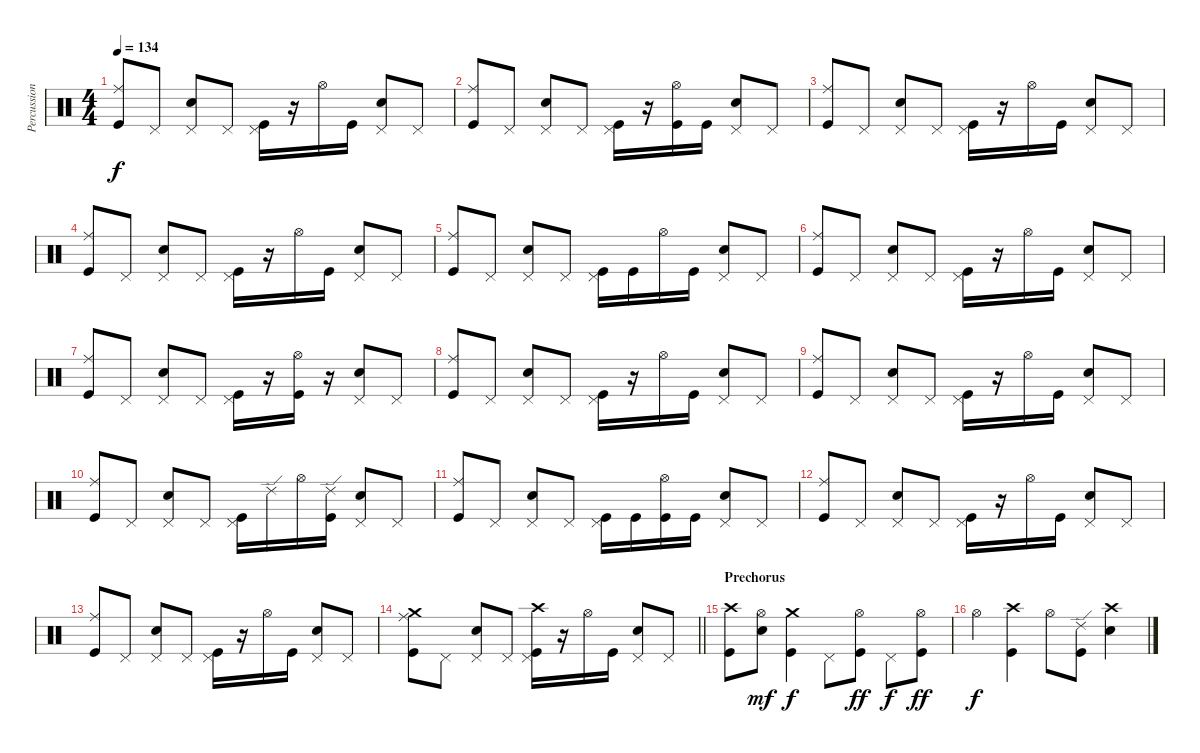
\track ("Percussion" "Percussion") {instrument percussion}
\staff {score}
\articulation defaults
\ts (4 4)
\tempo 134
\clef neutral
\ks c
("Ride (middle)" "Kick (hit)").8{dy f} "Pedal Hi-Hat (hit)".8 ("Pedal Hi-Hat (hit)" "Electric Snare (hit)").8 "Pedal Hi-Hat (hit)".8 ("Pedal Hi-Hat (hit)" "Kick (hit)").16 r.16 "Hi-Hat (open)".16 "Kick (hit)".16 ("Pedal Hi-Hat (hit)" "Electric Snare (hit)").8 "Pedal Hi-Hat (hit)".8 |
("Ride (middle)" "Kick (hit)").8 "Pedal Hi-Hat (hit)".8 ("Pedal Hi-Hat (hit)" "Electric Snare (hit)").8 "Pedal Hi-Hat (hit)".8 ("Pedal Hi-Hat (hit)" "Kick (hit)").16 r.16 ("Hi-Hat (open)" "Kick (hit)").16 "Kick (hit)".16 ("Pedal Hi-Hat (hit)" "Electric Snare (hit)").8 "Pedal Hi-Hat (hit)".8 |
("Ride (middle)" "Kick (hit)").8 "Pedal Hi-Hat (hit)".8 ("Pedal Hi-Hat (hit)" "Electric Snare (hit)").8 "Pedal Hi-Hat (hit)".8 ("Pedal Hi-Hat (hit)" "Kick (hit)").16 r.16 "Hi-Hat (open)".16 "Kick (hit)".16 ("Pedal Hi-Hat (hit)" "Electric Snare (hit)").8 "Pedal Hi-Hat (hit)".8 |
("Ride (middle)" "Kick (hit)").8 "Pedal Hi-Hat (hit)".8 ("Pedal Hi-Hat (hit)" "Electric Snare (hit)").8 "Pedal Hi-Hat (hit)".8 ("Pedal Hi-Hat (hit)" "Kick (hit)").16 r.16 "Hi-Hat (open)".16 "Kick (hit)".16 ("Pedal Hi-Hat (hit)" "Electric Snare (hit)").8 "Pedal Hi-Hat (hit)".8 |
("Ride (middle)" "Kick (hit)").8 "Pedal Hi-Hat (hit)".8 ("Pedal Hi-Hat (hit)" "Electric Snare (hit)").8 "Pedal Hi-Hat (hit)".8 ("Pedal Hi-Hat (hit)" "Kick (hit)").16 "Kick (hit)".16 "Hi-Hat (open)".16 "Kick (hit)".16 ("Pedal Hi-Hat (hit)" "Electric Snare (hit)").8 "Pedal Hi-Hat (hit)".8 |
("Ride (middle)" "Kick (hit)").8 "Pedal Hi-Hat (hit)".8 ("Pedal Hi-Hat (hit)" "Electric Snare (hit)").8 "Pedal Hi-Hat (hit)".8 ("Pedal Hi-Hat (hit)" "Kick (hit)").16 r.16 "Hi-Hat (open)".16 "Kick (hit)".16 ("Pedal Hi-Hat (hit)" "Electric Snare (hit)").8 "Pedal Hi-Hat (hit)".8 |
("Ride (middle)" "Kick (hit)").8 "Pedal Hi-Hat (hit)".8 ("Pedal Hi-Hat (hit)" "Electric Snare (hit)").8 "Pedal Hi-Hat (hit)".8 ("Pedal Hi-Hat (hit)" "Kick (hit)").16 r.16 ("Hi-Hat (open)" "Kick (hit)").16 r.16 ("Pedal Hi-Hat (hit)" "Electric Snare (hit)").8 "Pedal Hi-Hat (hit)".8 |
("Ride (middle)" "Kick (hit)").8 "Pedal Hi-Hat (hit)".8 ("Pedal Hi-Hat (hit)" "Electric Snare (hit)").8 "Pedal Hi-Hat (hit)".8 ("Pedal Hi-Hat (hit)" "Kick (hit)").16 r.16 "Hi-Hat (open)".16 "Kick (hit)".16 ("Pedal Hi-Hat (hit)" "Electric Snare (hit)").8 "Pedal Hi-Hat (hit)".8 |
("Ride (middle)" "Kick (hit)").8 "Pedal Hi-Hat (hit)".8 ("Pedal Hi-Hat (hit)" "Electric Snare (hit)").8 "Pedal Hi-Hat (hit)".8 ("Pedal Hi-Hat (hit)" "Kick (hit)").16 r.16 "Hi-Hat (open)".16 "Kick (hit)".16 ("Pedal Hi-Hat (hit)" "Electric Snare (hit)").8 "Pedal Hi-Hat (hit)".8 |
("Ride (middle)" "Kick (hit)").8 "Pedal Hi-Hat (hit)".8 ("Pedal Hi-Hat (hit)" "Electric Snare (hit)").8 "Pedal Hi-Hat (hit)".8 ("Pedal Hi-Hat (hit)" "Kick (hit)").16 "Ride (edge) 2".16 "Hi-Hat (open)".16 ("Ride (edge) 2" "Kick (hit)").16 ("Pedal Hi-Hat (hit)" "Electric Snare (hit)").8 "Pedal Hi-Hat (hit)".8 |
("Ride (middle)" "Kick (hit)").8 "Pedal Hi-Hat (hit)".8 ("Pedal Hi-Hat (hit)" "Electric Snare (hit)").8 "Pedal Hi-Hat (hit)".8 ("Pedal Hi-Hat (hit)" "Kick (hit)").16 "Kick (hit)".16 ("Hi-Hat (open)" "Kick (hit)").16 "Kick (hit)".16 ("Pedal Hi-Hat (hit)" "Electric Snare (hit)").8 "Pedal Hi-Hat (hit)".8 |
("Ride (middle)" "Kick (hit)").8 "Pedal Hi-Hat (hit)".8 ("Pedal Hi-Hat (hit)" "Electric Snare (hit)").8 "Pedal Hi-Hat (hit)".8 ("Pedal Hi-Hat (hit)" "Kick (hit)").16 r.16 "Hi-Hat (open)".16 "Kick (hit)".16 ("Pedal Hi-Hat (hit)" "Electric Snare (hit)").8 "Pedal Hi-Hat (hit)".8 |
("Ride (middle)" "Kick (hit)").8 "Pedal Hi-Hat (hit)".8 ("Pedal Hi-Hat (hit)" "Electric Snare (hit)").8 "Pedal Hi-Hat (hit)".8 ("Pedal Hi-Hat (hit)" "Kick (hit)").16 r.16 "Hi-Hat (open)".16 "Kick (hit)".16 ("Pedal Hi-Hat (hit)" "Electric Snare (hit)").8 "Pedal Hi-Hat (hit)".8 |
\barLineRight lightlight
("Crash medium (hit)" "Ride (middle)" "Kick (hit)").8 "Pedal Hi-Hat (hit)".8 ("Pedal Hi-Hat (hit)" "Electric Snare (hit)").8 "Pedal Hi-Hat (hit)".8 ("Crash high (hit)" "Pedal Hi-Hat (hit)" "Kick (hit)").16 r.16 "Hi-Hat (open)".16 "Kick (hit)".16 ("Pedal Hi-Hat (hit)" "Electric Snare (hit)").8 "Pedal Hi-Hat (hit)".8 |
\section ("" "Prechorus")
("Crash high (hit)" "Kick (hit)").8 ("Hi-Hat (open)" "Electric Snare (hit)").8{dy mf} ("Crash medium (hit)" "Kick (hit)").4{dy f} "Pedal Hi-Hat (hit)".8 ("Hi-Hat (open)" "Kick (hit)").8{dy ff} "Pedal Hi-Hat (hit)".8{dy f} ("Hi-Hat (open)" "Kick (hit)").8{dy ff} |
"Hi-Hat (open)".4{dy f} ("Crash high (hit)" "Kick (hit)").4 "Hi-Hat (open)".8 ("Ride (edge) 2" "Kick (hit)").8 ("Crash high (hit)" "Electric Snare (hit)").4
